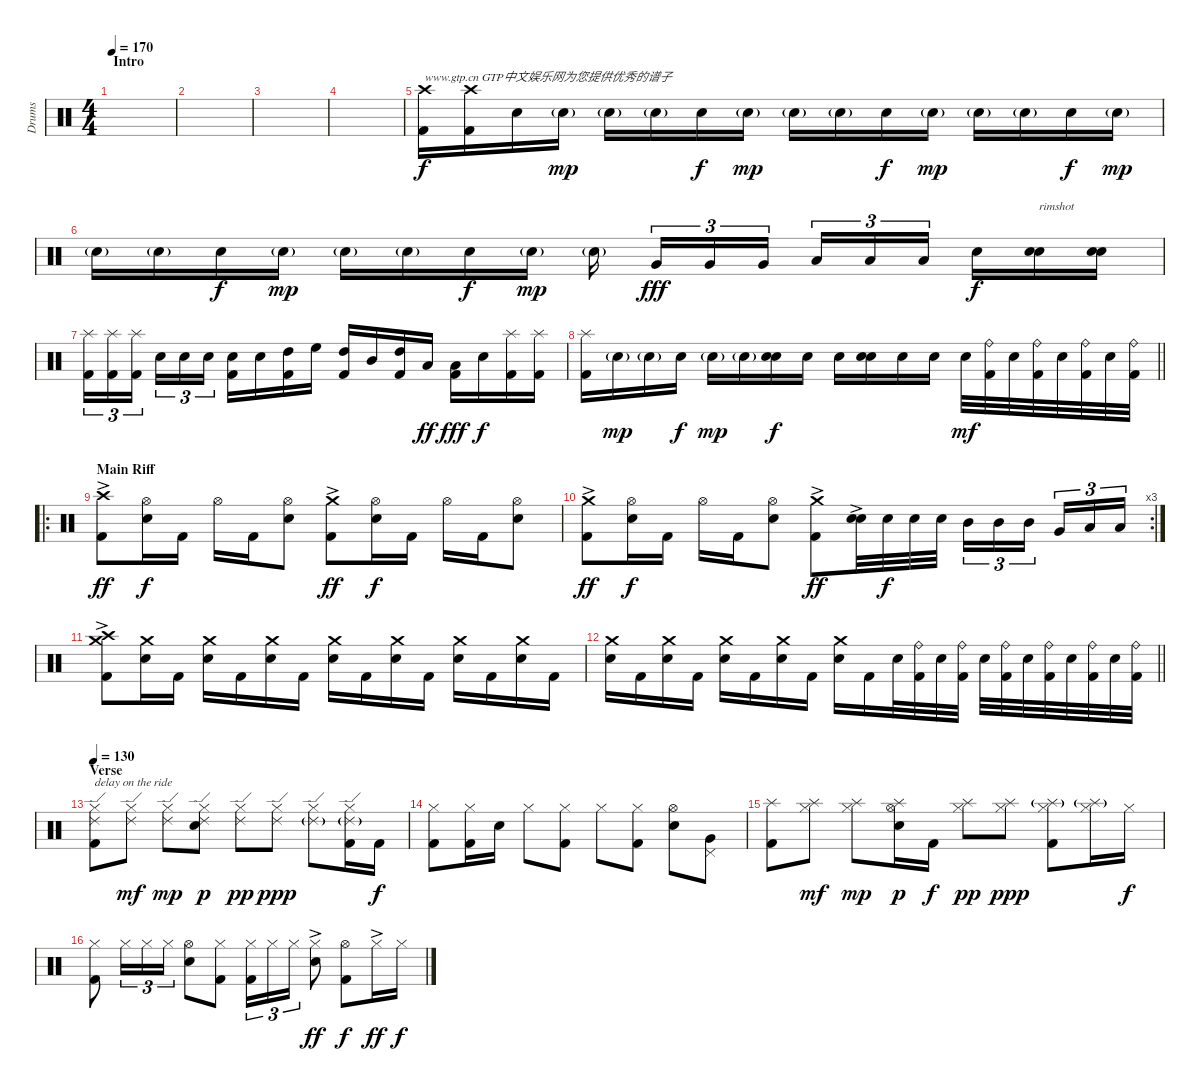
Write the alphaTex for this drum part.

\track ("Drums" "Drums") {instrument percussion}
\staff {score}
\articulation defaults
\ts (4 4)
\section ("" "Intro")
\tempo 170
\clef neutral
\ks c
|
|
|
|
("Crash high (hit)" "Kick (hit) 2").16{txt "www.gtp.cn GTP中文娱乐网为您提供优秀的谱子"} ("Crash high (hit)" "Kick (hit) 2").16 "Electric Snare (hit)".16 "Electric Snare (hit)"{g}.16{dy mp} "Electric Snare (hit)"{g}.16 "Electric Snare (hit)"{g}.16 "Electric Snare (hit)".16{dy f} "Electric Snare (hit)"{g}.16{dy mp} "Electric Snare (hit)"{g}.16 "Electric Snare (hit)"{g}.16 "Electric Snare (hit)".16{dy f} "Electric Snare (hit)"{g}.16{dy mp} "Electric Snare (hit)"{g}.16 "Electric Snare (hit)"{g}.16 "Electric Snare (hit)".16{dy f} "Electric Snare (hit)"{g}.16{dy mp} |
"Electric Snare (hit)"{g}.16 "Electric Snare (hit)"{g}.16 "Electric Snare (hit)".16{dy f} "Electric Snare (hit)"{g}.16{dy mp} "Electric Snare (hit)"{g}.16 "Electric Snare (hit)"{g}.16 "Electric Snare (hit)".16{dy f} "Electric Snare (hit)"{g}.16{dy mp} "Electric Snare (hit)"{g}.16{beam splitsecondary} "Very Low Tom (hit)".16{tu (3 2) dy fff} "Very Low Tom (hit)".16{tu (3 2)} "Very Low Tom (hit)".16{tu (3 2) beam splitsecondary} "Low Floor Tom (hit)".16{tu (3 2)} "Low Floor Tom (hit)".16{tu (3 2)} "Low Floor Tom (hit)".16{tu (3 2) beam splitsecondary} "Electric Snare (hit)".16{dy f} ("Snare (hit) 2" "Electric Snare (hit)").16{txt "rimshot"} ("Snare (hit) 2" "Electric Snare (hit)").16 |
("Splash (hit)" "Kick (hit) 2").16{tu (3 2)} ("Splash (hit)" "Kick (hit) 2").16{tu (3 2)} ("Splash (hit)" "Kick (hit) 2").16{tu (3 2) beam splitsecondary} "Electric Snare (hit)".16{tu (3 2)} "Electric Snare (hit)".16{tu (3 2)} "Electric Snare (hit)".16{tu (3 2)} ("Electric Snare (hit)" "Kick (hit) 2").16 "Electric Snare (hit)".16 ("High Tom (hit)" "Kick (hit) 2").16 "High Floor Tom (hit)".16 ("High Tom (hit)" "Kick (hit) 2").16 "Mid Tom (hit)".16 ("High Tom (hit)" "Kick (hit) 2").16 "Low Tom (hit)".16{dy ff} ("Low Floor Tom (hit)" "Kick (hit) 2").16{dy fff} "Electric Snare (hit)".16{dy f} ("Splash (hit)" "Kick (hit) 2").16 ("Splash (hit)" "Kick (hit) 2").16 |
\barLineRight lightlight
("Splash (hit)" "Kick (hit) 2").16 "Electric Snare (hit)"{g}.16{dy mp} "Electric Snare (hit)"{g}.16 "Electric Snare (hit)".16{dy f} "Electric Snare (hit)"{g}.16{dy mp} "Electric Snare (hit)"{g}.16 ("Snare (hit) 2" "Electric Snare (hit)").16{dy f} "Electric Snare (hit)".16 "Electric Snare (hit)".16 ("Snare (hit) 2" "Electric Snare (hit)").16 "Electric Snare (hit)".16 "Electric Snare (hit)".16 "Electric Snare (hit)".32{dy mf} ("Ride (bell)" "Kick (hit) 2").32 "Electric Snare (hit)".32 ("Ride (bell)" "Kick (hit) 2").32 "Electric Snare (hit)".32 ("Ride (bell)" "Kick (hit) 2").32 "Electric Snare (hit)".32 ("Ride (bell)" "Kick (hit) 2").32 |
\ro
\section ("" "Main Riff")
("Crash high (hit)"{ac} "Kick (hit) 2").8{dy ff} ("Hi-Hat (open)" "Electric Snare (hit)").16{dy f} "Kick (hit) 2".16 "Hi-Hat (open)".16 "Kick (hit) 2".16 ("Hi-Hat (open)" "Electric Snare (hit)").8 ("Crash medium (hit)"{ac} "Kick (hit) 2").8{dy ff} ("Hi-Hat (open)" "Electric Snare (hit)").16{dy f} "Kick (hit) 2".16 "Hi-Hat (open)".16 "Kick (hit) 2".16 ("Hi-Hat (open)" "Electric Snare (hit)").8 |
\rc 3
("Crash medium (hit)"{ac} "Kick (hit) 2").8{dy ff} ("Hi-Hat (open)" "Electric Snare (hit)").16{dy f} "Kick (hit) 2".16 "Hi-Hat (open)".16 "Kick (hit) 2".16 ("Hi-Hat (open)" "Electric Snare (hit)").8 ("Crash medium (hit)"{ac} "Kick (hit) 2").8{dy ff} ("Snare (hit) 2" "Electric Snare (hit)"{ac}).32 "Electric Snare (hit)".32{dy f} "Electric Snare (hit)".32 "Electric Snare (hit)".32 "Mid Tom (hit)".16{tu (3 2)} "Mid Tom (hit)".16{tu (3 2)} "Mid Tom (hit)".16{tu (3 2) beam splitsecondary} "Very Low Tom (hit)".16{tu (3 2)} "Low Floor Tom (hit)".16{tu (3 2)} "Low Floor Tom (hit)".16{tu (3 2)} |
("Crash high (hit)"{ac} "Crash medium (hit)" "Kick (hit) 2").8 ("Crash medium (hit)" "Electric Snare (hit)").16 "Kick (hit) 2".16 ("Crash medium (hit)" "Electric Snare (hit)").16 "Kick (hit) 2".16 ("Crash medium (hit)" "Electric Snare (hit)").16 "Kick (hit) 2".16 ("Crash medium (hit)" "Electric Snare (hit)").16 "Kick (hit) 2".16 ("Crash medium (hit)" "Electric Snare (hit)").16 "Kick (hit) 2".16 ("Crash medium (hit)" "Electric Snare (hit)").16 "Kick (hit) 2".16 ("Crash medium (hit)" "Electric Snare (hit)").16 "Kick (hit) 2".16 |
\barLineRight lightlight
("Crash medium (hit)" "Electric Snare (hit)").16 "Kick (hit) 2".16 ("Crash medium (hit)" "Electric Snare (hit)").16 "Kick (hit) 2".16 ("Crash medium (hit)" "Electric Snare (hit)").16 "Kick (hit) 2".16 ("Crash medium (hit)" "Electric Snare (hit)").16 "Kick (hit) 2".16 ("Crash medium (hit)" "Electric Snare (hit)").16 "Kick (hit) 2".16 "Electric Snare (hit)".32 ("Ride (bell)" "Kick (hit) 2").32 "Electric Snare (hit)".32 ("Ride (bell)" "Kick (hit) 2").32 "Electric Snare (hit)".32 ("Ride (bell)" "Kick (hit) 2").32 "Electric Snare (hit)".32 ("Ride (bell)" "Kick (hit) 2").32 "Electric Snare (hit)".32 ("Ride (bell)" "Kick (hit) 2").32 "Electric Snare (hit)".32 ("Ride (bell)" "Kick (hit) 2").32 |
\section ("" "Verse")
\tempo 130
("Ride (edge) 2" "Hi-Hat (closed)" "Kick (hit) 2").8{txt "delay on the ride"} ("Ride (edge) 2" "Hi-Hat (closed)").8{dy mf} ("Ride (edge) 2" "Hi-Hat (closed)").8{dy mp} ("Ride (edge) 2" "Hi-Hat (closed)" "Electric Snare (hit)").8{dy p} ("Ride (edge) 2" "Hi-Hat (closed)").8{dy pp} ("Ride (edge) 2" "Hi-Hat (closed)").8{dy ppp} ("Ride (edge) 2"{g} "Hi-Hat (closed)").8 ("Ride (edge) 2"{g} "Hi-Hat (closed)" "Kick (hit) 2").16 "Kick (hit) 2".16{dy f} |
("Hi-Hat (closed)" "Kick (hit) 2").8 ("Hi-Hat (closed)" "Kick (hit) 2").16 "Electric Snare (hit)".16 "Hi-Hat (closed)".8 ("Hi-Hat (closed)" "Kick (hit) 2").8 "Hi-Hat (closed)".8 ("Hi-Hat (closed)" "Kick (hit) 2").8 ("Hi-Hat (open)" "Electric Snare (hit)").8 ("Pedal Hi-Hat (hit)" "Very Low Tom (hit)").8 |
("Splash (hit)" "Kick (hit) 2").8 ("Splash (hit)" "Hi-Hat (closed)").8{dy mf} ("Splash (hit)" "Hi-Hat (closed)").8{dy mp} ("Splash (hit)" "Hi-Hat (open)" "Electric Snare (hit)").16{dy p} "Kick (hit) 2".16{dy f} ("Splash (hit)" "Hi-Hat (closed)").8{dy pp} ("Splash (hit)" "Hi-Hat (closed)").8{dy ppp} ("Splash (hit)"{g} "Hi-Hat (closed)" "Kick (hit) 2").8 ("Splash (hit)"{g} "Hi-Hat (closed)").16 "Hi-Hat (closed)".16{dy f} |
("Hi-Hat (closed)" "Kick (hit) 2").8 "Hi-Hat (closed)".16{tu (3 2)} "Hi-Hat (closed)".16{tu (3 2)} "Hi-Hat (closed)".16{tu (3 2)} ("Hi-Hat (open)" "Electric Snare (hit)").8 ("Hi-Hat (closed)" "Kick (hit) 2").8 ("Hi-Hat (closed)" "Kick (hit) 2").16{tu (3 2)} "Hi-Hat (closed)".16{tu (3 2)} "Hi-Hat (closed)".16{tu (3 2)} ("Hi-Hat (closed)"{ac} "Electric Snare (hit)").8{dy ff} ("Hi-Hat (open)" "Kick (hit) 2").8{dy f} "Hi-Hat (closed)"{ac}.16{dy ff} "Hi-Hat (closed)".16{dy f}
